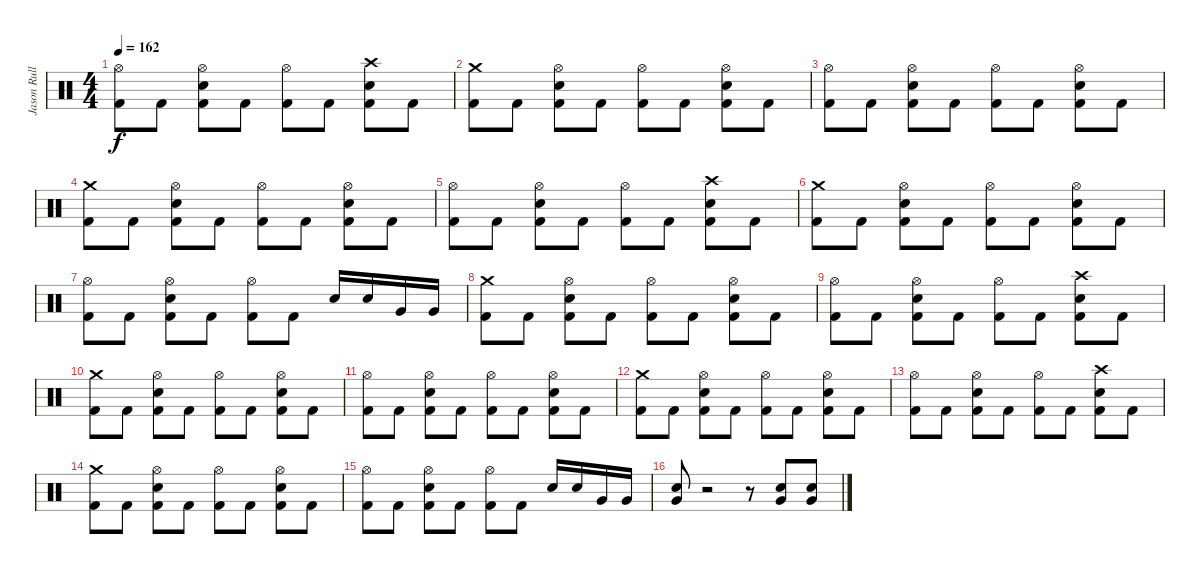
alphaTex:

\track ("Jason Rullo" "Jason Rull") {instrument percussion}
\staff {score}
\articulation defaults
\ts (4 4)
\tempo 162
\clef neutral
\ks c
("Hi-Hat (open)" "Kick (hit) 2").8{dy f} "Kick (hit) 2".8 ("Hi-Hat (open)" "Electric Snare (hit)" "Kick (hit) 2").8 "Kick (hit) 2".8 ("Hi-Hat (open)" "Kick (hit) 2").8 "Kick (hit) 2".8 ("Crash high (hit)" "Electric Snare (hit)" "Kick (hit) 2").8 "Kick (hit) 2".8 |
("Crash medium (hit)" "Kick (hit) 2").8 "Kick (hit) 2".8 ("Hi-Hat (open)" "Electric Snare (hit)" "Kick (hit) 2").8 "Kick (hit) 2".8 ("Hi-Hat (open)" "Kick (hit) 2").8 "Kick (hit) 2".8 ("Hi-Hat (open)" "Electric Snare (hit)" "Kick (hit) 2").8 "Kick (hit) 2".8 |
("Hi-Hat (open)" "Kick (hit) 2").8 "Kick (hit) 2".8 ("Hi-Hat (open)" "Electric Snare (hit)" "Kick (hit) 2").8 "Kick (hit) 2".8 ("Hi-Hat (open)" "Kick (hit) 2").8 "Kick (hit) 2".8 ("Hi-Hat (open)" "Electric Snare (hit)" "Kick (hit) 2").8 "Kick (hit) 2".8 |
("Crash medium (hit)" "Kick (hit) 2").8 "Kick (hit) 2".8 ("Hi-Hat (open)" "Electric Snare (hit)" "Kick (hit) 2").8 "Kick (hit) 2".8 ("Hi-Hat (open)" "Kick (hit) 2").8 "Kick (hit) 2".8 ("Hi-Hat (open)" "Electric Snare (hit)" "Kick (hit) 2").8 "Kick (hit) 2".8 |
("Hi-Hat (open)" "Kick (hit) 2").8 "Kick (hit) 2".8 ("Hi-Hat (open)" "Electric Snare (hit)" "Kick (hit) 2").8 "Kick (hit) 2".8 ("Hi-Hat (open)" "Kick (hit) 2").8 "Kick (hit) 2".8 ("Crash high (hit)" "Electric Snare (hit)" "Kick (hit) 2").8 "Kick (hit) 2".8 |
("Crash medium (hit)" "Kick (hit) 2").8 "Kick (hit) 2".8 ("Hi-Hat (open)" "Electric Snare (hit)" "Kick (hit) 2").8 "Kick (hit) 2".8 ("Hi-Hat (open)" "Kick (hit) 2").8 "Kick (hit) 2".8 ("Hi-Hat (open)" "Electric Snare (hit)" "Kick (hit) 2").8 "Kick (hit) 2".8 |
("Hi-Hat (open)" "Kick (hit) 2").8 "Kick (hit) 2".8 ("Hi-Hat (open)" "Electric Snare (hit)" "Kick (hit) 2").8 "Kick (hit) 2".8 ("Hi-Hat (open)" "Kick (hit) 2").8 "Kick (hit) 2".8 "Electric Snare (hit)".16 "Electric Snare (hit)".16 "Very Low Tom (hit)".16 "Very Low Tom (hit)".16 |
("Crash medium (hit)" "Kick (hit) 2").8 "Kick (hit) 2".8 ("Hi-Hat (open)" "Electric Snare (hit)" "Kick (hit) 2").8 "Kick (hit) 2".8 ("Hi-Hat (open)" "Kick (hit) 2").8 "Kick (hit) 2".8 ("Hi-Hat (open)" "Electric Snare (hit)" "Kick (hit) 2").8 "Kick (hit) 2".8 |
("Hi-Hat (open)" "Kick (hit) 2").8 "Kick (hit) 2".8 ("Hi-Hat (open)" "Electric Snare (hit)" "Kick (hit) 2").8 "Kick (hit) 2".8 ("Hi-Hat (open)" "Kick (hit) 2").8 "Kick (hit) 2".8 ("Crash high (hit)" "Electric Snare (hit)" "Kick (hit) 2").8 "Kick (hit) 2".8 |
("Crash medium (hit)" "Kick (hit) 2").8 "Kick (hit) 2".8 ("Hi-Hat (open)" "Electric Snare (hit)" "Kick (hit) 2").8 "Kick (hit) 2".8 ("Hi-Hat (open)" "Kick (hit) 2").8 "Kick (hit) 2".8 ("Hi-Hat (open)" "Electric Snare (hit)" "Kick (hit) 2").8 "Kick (hit) 2".8 |
("Hi-Hat (open)" "Kick (hit) 2").8 "Kick (hit) 2".8 ("Hi-Hat (open)" "Electric Snare (hit)" "Kick (hit) 2").8 "Kick (hit) 2".8 ("Hi-Hat (open)" "Kick (hit) 2").8 "Kick (hit) 2".8 ("Hi-Hat (open)" "Electric Snare (hit)" "Kick (hit) 2").8 "Kick (hit) 2".8 |
("Crash medium (hit)" "Kick (hit) 2").8 "Kick (hit) 2".8 ("Hi-Hat (open)" "Electric Snare (hit)" "Kick (hit) 2").8 "Kick (hit) 2".8 ("Hi-Hat (open)" "Kick (hit) 2").8 "Kick (hit) 2".8 ("Hi-Hat (open)" "Electric Snare (hit)" "Kick (hit) 2").8 "Kick (hit) 2".8 |
("Hi-Hat (open)" "Kick (hit) 2").8 "Kick (hit) 2".8 ("Hi-Hat (open)" "Electric Snare (hit)" "Kick (hit) 2").8 "Kick (hit) 2".8 ("Hi-Hat (open)" "Kick (hit) 2").8 "Kick (hit) 2".8 ("Crash high (hit)" "Electric Snare (hit)" "Kick (hit) 2").8 "Kick (hit) 2".8 |
("Crash medium (hit)" "Kick (hit) 2").8 "Kick (hit) 2".8 ("Hi-Hat (open)" "Electric Snare (hit)" "Kick (hit) 2").8 "Kick (hit) 2".8 ("Hi-Hat (open)" "Kick (hit) 2").8 "Kick (hit) 2".8 ("Hi-Hat (open)" "Electric Snare (hit)" "Kick (hit) 2").8 "Kick (hit) 2".8 |
("Hi-Hat (open)" "Kick (hit) 2").8 "Kick (hit) 2".8 ("Hi-Hat (open)" "Electric Snare (hit)" "Kick (hit) 2").8 "Kick (hit) 2".8 ("Hi-Hat (open)" "Kick (hit) 2").8 "Kick (hit) 2".8 "Electric Snare (hit)".16 "Electric Snare (hit)".16 "Very Low Tom (hit)".16 "Very Low Tom (hit)".16 |
("Very Low Tom (hit)" "Electric Snare (hit)").8 r.2 r.8 ("Very Low Tom (hit)" "Electric Snare (hit)").8 ("Very Low Tom (hit)" "Electric Snare (hit)").8
